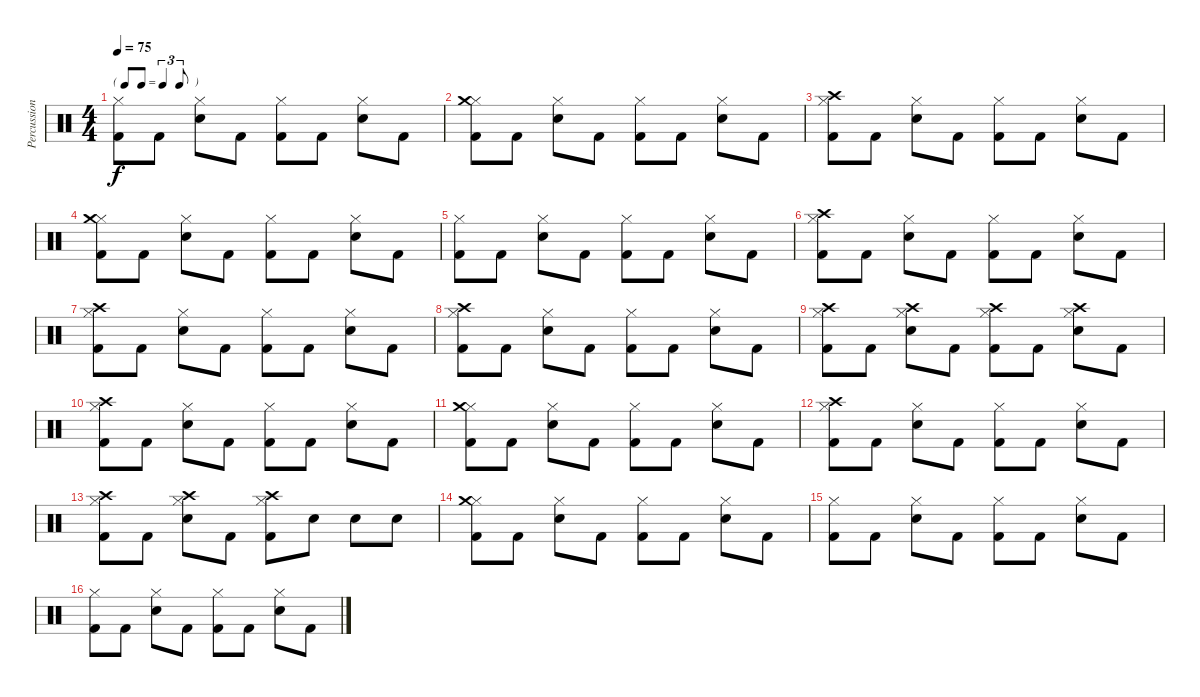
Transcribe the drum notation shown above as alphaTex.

\track ("Percussions" "Percussion") {instrument percussion}
\staff {score}
\articulation defaults
\ts (4 4)
\tf triplet8th
\tempo 75
\clef neutral
\ks c
("Hi-Hat (closed)" "Kick (hit) 2").8{dy f} "Kick (hit) 2".8 ("Hi-Hat (closed)" "Snare (hit) 2").8 "Kick (hit) 2".8 ("Hi-Hat (closed)" "Kick (hit) 2").8 "Kick (hit) 2".8 ("Hi-Hat (closed)" "Snare (hit) 2").8 "Kick (hit) 2".8 |
("Hi-Hat (closed)" "Crash medium (hit)" "Kick (hit) 2").8 "Kick (hit) 2".8 ("Hi-Hat (closed)" "Snare (hit) 2").8 "Kick (hit) 2".8 ("Hi-Hat (closed)" "Kick (hit) 2").8 "Kick (hit) 2".8 ("Hi-Hat (closed)" "Snare (hit) 2").8 "Kick (hit) 2".8 |
("Hi-Hat (closed)" "Crash high (hit)" "Kick (hit) 2").8 "Kick (hit) 2".8 ("Hi-Hat (closed)" "Snare (hit) 2").8 "Kick (hit) 2".8 ("Hi-Hat (closed)" "Kick (hit) 2").8 "Kick (hit) 2".8 ("Hi-Hat (closed)" "Snare (hit) 2").8 "Kick (hit) 2".8 |
("Hi-Hat (closed)" "Crash medium (hit)" "Kick (hit) 2").8 "Kick (hit) 2".8 ("Hi-Hat (closed)" "Snare (hit) 2").8 "Kick (hit) 2".8 ("Hi-Hat (closed)" "Kick (hit) 2").8 "Kick (hit) 2".8 ("Hi-Hat (closed)" "Snare (hit) 2").8 "Kick (hit) 2".8 |
("Hi-Hat (closed)" "Kick (hit) 2").8 "Kick (hit) 2".8 ("Hi-Hat (closed)" "Snare (hit) 2").8 "Kick (hit) 2".8 ("Hi-Hat (closed)" "Kick (hit) 2").8 "Kick (hit) 2".8 ("Hi-Hat (closed)" "Snare (hit) 2").8 "Kick (hit) 2".8 |
("Hi-Hat (closed)" "Crash high (hit)" "Kick (hit) 2").8 "Kick (hit) 2".8 ("Hi-Hat (closed)" "Snare (hit) 2").8 "Kick (hit) 2".8 ("Hi-Hat (closed)" "Kick (hit) 2").8 "Kick (hit) 2".8 ("Hi-Hat (closed)" "Snare (hit) 2").8 "Kick (hit) 2".8 |
("Hi-Hat (closed)" "Crash high (hit)" "Kick (hit) 2").8 "Kick (hit) 2".8 ("Hi-Hat (closed)" "Snare (hit) 2").8 "Kick (hit) 2".8 ("Hi-Hat (closed)" "Kick (hit) 2").8 "Kick (hit) 2".8 ("Hi-Hat (closed)" "Snare (hit) 2").8 "Kick (hit) 2".8 |
("Hi-Hat (closed)" "Crash high (hit)" "Kick (hit) 2").8 "Kick (hit) 2".8 ("Hi-Hat (closed)" "Snare (hit) 2").8 "Kick (hit) 2".8 ("Hi-Hat (closed)" "Kick (hit) 2").8 "Kick (hit) 2".8 ("Hi-Hat (closed)" "Snare (hit) 2").8 "Kick (hit) 2".8 |
("Hi-Hat (closed)" "Crash high (hit)" "Kick (hit) 2").8 "Kick (hit) 2".8 ("Hi-Hat (closed)" "Crash high (hit)" "Snare (hit) 2").8 "Kick (hit) 2".8 ("Hi-Hat (closed)" "Crash high (hit)" "Kick (hit) 2").8 "Kick (hit) 2".8 ("Hi-Hat (closed)" "Crash high (hit)" "Snare (hit) 2").8 "Kick (hit) 2".8 |
("Hi-Hat (closed)" "Crash high (hit)" "Kick (hit) 2").8 "Kick (hit) 2".8 ("Hi-Hat (closed)" "Snare (hit) 2").8 "Kick (hit) 2".8 ("Hi-Hat (closed)" "Kick (hit) 2").8 "Kick (hit) 2".8 ("Hi-Hat (closed)" "Snare (hit) 2").8 "Kick (hit) 2".8 |
("Hi-Hat (closed)" "Crash medium (hit)" "Kick (hit) 2").8 "Kick (hit) 2".8 ("Hi-Hat (closed)" "Snare (hit) 2").8 "Kick (hit) 2".8 ("Hi-Hat (closed)" "Kick (hit) 2").8 "Kick (hit) 2".8 ("Hi-Hat (closed)" "Snare (hit) 2").8 "Kick (hit) 2".8 |
("Hi-Hat (closed)" "Crash high (hit)" "Kick (hit) 2").8 "Kick (hit) 2".8 ("Hi-Hat (closed)" "Snare (hit) 2").8 "Kick (hit) 2".8 ("Hi-Hat (closed)" "Kick (hit) 2").8 "Kick (hit) 2".8 ("Hi-Hat (closed)" "Snare (hit) 2").8 "Kick (hit) 2".8 |
("Hi-Hat (closed)" "Crash high (hit)" "Kick (hit) 2").8 "Kick (hit) 2".8 ("Hi-Hat (closed)" "Crash high (hit)" "Snare (hit) 2").8 "Kick (hit) 2".8 ("Hi-Hat (closed)" "Crash high (hit)" "Kick (hit) 2").8 "Snare (hit) 2".8 "Snare (hit) 2".8 "Snare (hit) 2".8 |
("Hi-Hat (closed)" "Crash medium (hit)" "Kick (hit) 2").8 "Kick (hit) 2".8 ("Hi-Hat (closed)" "Snare (hit) 2").8 "Kick (hit) 2".8 ("Hi-Hat (closed)" "Kick (hit) 2").8 "Kick (hit) 2".8 ("Hi-Hat (closed)" "Snare (hit) 2").8 "Kick (hit) 2".8 |
("Hi-Hat (closed)" "Kick (hit) 2").8 "Kick (hit) 2".8 ("Hi-Hat (closed)" "Snare (hit) 2").8 "Kick (hit) 2".8 ("Hi-Hat (closed)" "Kick (hit) 2").8 "Kick (hit) 2".8 ("Hi-Hat (closed)" "Snare (hit) 2").8 "Kick (hit) 2".8 |
("Hi-Hat (closed)" "Kick (hit) 2").8 "Kick (hit) 2".8 ("Hi-Hat (closed)" "Snare (hit) 2").8 "Kick (hit) 2".8 ("Hi-Hat (closed)" "Kick (hit) 2").8 "Kick (hit) 2".8 ("Hi-Hat (closed)" "Snare (hit) 2").8 "Kick (hit) 2".8
